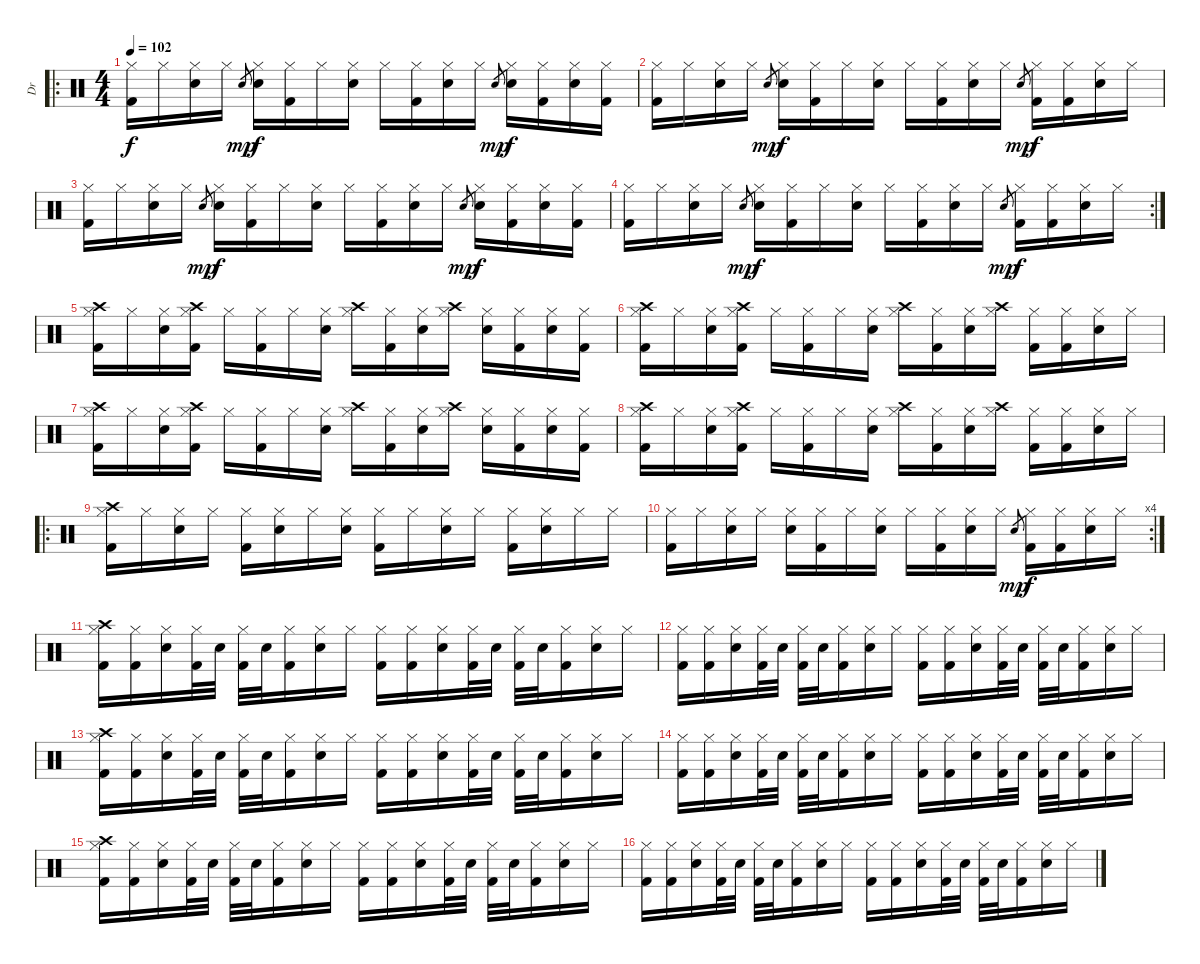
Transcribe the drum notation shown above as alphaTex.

\track ("Dr" "Dr") {instrument percussion}
\staff {score}
\articulation defaults
\ro
\ts (4 4)
\tempo 102
\clef neutral
\ks c
("Hi-Hat (closed)" "Kick (hit) 2").16{dy f} "Hi-Hat (closed)".16 ("Hi-Hat (closed)" "Electric Snare (hit)").16 "Hi-Hat (closed)".16 "Electric Snare (hit)".8{gr dy mp} ("Hi-Hat (closed)" "Electric Snare (hit)").16{dy f} ("Hi-Hat (closed)" "Kick (hit) 2").16 "Hi-Hat (closed)".16 ("Hi-Hat (closed)" "Electric Snare (hit)").16 "Hi-Hat (closed)".16 ("Hi-Hat (closed)" "Kick (hit) 2").16 ("Hi-Hat (closed)" "Electric Snare (hit)").16 "Hi-Hat (closed)".16 "Electric Snare (hit)".8{gr dy mp} ("Hi-Hat (closed)" "Electric Snare (hit)").16{dy f} ("Hi-Hat (closed)" "Kick (hit) 2").16 ("Hi-Hat (closed)" "Electric Snare (hit)").16 ("Hi-Hat (closed)" "Kick (hit) 2").16 |
("Hi-Hat (closed)" "Kick (hit) 2").16 "Hi-Hat (closed)".16 ("Hi-Hat (closed)" "Electric Snare (hit)").16 "Hi-Hat (closed)".16 "Electric Snare (hit)".8{gr dy mp} ("Hi-Hat (closed)" "Electric Snare (hit)").16{dy f} ("Hi-Hat (closed)" "Kick (hit) 2").16 "Hi-Hat (closed)".16 ("Hi-Hat (closed)" "Electric Snare (hit)").16 "Hi-Hat (closed)".16 ("Hi-Hat (closed)" "Kick (hit) 2").16 ("Hi-Hat (closed)" "Electric Snare (hit)").16 "Hi-Hat (closed)".16 "Electric Snare (hit)".8{gr dy mp} ("Hi-Hat (closed)" "Kick (hit) 2").16{dy f} ("Hi-Hat (closed)" "Kick (hit) 2").16 ("Hi-Hat (closed)" "Electric Snare (hit)").16 "Hi-Hat (closed)".16 |
("Hi-Hat (closed)" "Kick (hit) 2").16 "Hi-Hat (closed)".16 ("Hi-Hat (closed)" "Electric Snare (hit)").16 "Hi-Hat (closed)".16 "Electric Snare (hit)".8{gr dy mp} ("Hi-Hat (closed)" "Electric Snare (hit)").16{dy f} ("Hi-Hat (closed)" "Kick (hit) 2").16 "Hi-Hat (closed)".16 ("Hi-Hat (closed)" "Electric Snare (hit)").16 "Hi-Hat (closed)".16 ("Hi-Hat (closed)" "Kick (hit) 2").16 ("Hi-Hat (closed)" "Electric Snare (hit)").16 "Hi-Hat (closed)".16 "Electric Snare (hit)".8{gr dy mp} ("Hi-Hat (closed)" "Electric Snare (hit)").16{dy f} ("Hi-Hat (closed)" "Kick (hit) 2").16 ("Hi-Hat (closed)" "Electric Snare (hit)").16 ("Hi-Hat (closed)" "Kick (hit) 2").16 |
\rc 2
("Hi-Hat (closed)" "Kick (hit) 2").16 "Hi-Hat (closed)".16 ("Hi-Hat (closed)" "Electric Snare (hit)").16 "Hi-Hat (closed)".16 "Electric Snare (hit)".8{gr dy mp} ("Hi-Hat (closed)" "Electric Snare (hit)").16{dy f} ("Hi-Hat (closed)" "Kick (hit) 2").16 "Hi-Hat (closed)".16 ("Hi-Hat (closed)" "Electric Snare (hit)").16 "Hi-Hat (closed)".16 ("Hi-Hat (closed)" "Kick (hit) 2").16 ("Hi-Hat (closed)" "Electric Snare (hit)").16 "Hi-Hat (closed)".16 "Electric Snare (hit)".8{gr dy mp} ("Hi-Hat (closed)" "Kick (hit) 2").16{dy f} ("Hi-Hat (closed)" "Kick (hit) 2").16 ("Hi-Hat (closed)" "Electric Snare (hit)").16 "Hi-Hat (closed)".16 |
("Crash high (hit)" "Hi-Hat (closed)" "Kick (hit) 2").16 "Hi-Hat (closed)".16 ("Hi-Hat (closed)" "Electric Snare (hit)").16 ("Crash high (hit)" "Hi-Hat (closed)" "Kick (hit) 2").16 "Hi-Hat (closed)".16 ("Hi-Hat (closed)" "Kick (hit) 2").16 "Hi-Hat (closed)".16 ("Hi-Hat (closed)" "Electric Snare (hit)").16 ("Crash high (hit)" "Hi-Hat (closed)").16 ("Hi-Hat (closed)" "Kick (hit) 2").16 ("Hi-Hat (closed)" "Electric Snare (hit)").16 ("Crash high (hit)" "Hi-Hat (closed)").16 ("Hi-Hat (closed)" "Electric Snare (hit)").16 ("Hi-Hat (closed)" "Kick (hit) 2").16 ("Hi-Hat (closed)" "Electric Snare (hit)").16 ("Hi-Hat (closed)" "Kick (hit) 2").16 |
("Crash high (hit)" "Hi-Hat (closed)" "Kick (hit) 2").16 "Hi-Hat (closed)".16 ("Hi-Hat (closed)" "Electric Snare (hit)").16 ("Crash high (hit)" "Hi-Hat (closed)" "Kick (hit) 2").16 "Hi-Hat (closed)".16 ("Hi-Hat (closed)" "Kick (hit) 2").16 "Hi-Hat (closed)".16 ("Hi-Hat (closed)" "Electric Snare (hit)").16 ("Crash high (hit)" "Hi-Hat (closed)").16 ("Hi-Hat (closed)" "Kick (hit) 2").16 ("Hi-Hat (closed)" "Electric Snare (hit)").16 ("Crash high (hit)" "Hi-Hat (closed)").16 ("Hi-Hat (closed)" "Kick (hit) 2").16 ("Hi-Hat (closed)" "Kick (hit) 2").16 ("Hi-Hat (closed)" "Electric Snare (hit)").16 "Hi-Hat (closed)".16 |
("Crash high (hit)" "Hi-Hat (closed)" "Kick (hit) 2").16 "Hi-Hat (closed)".16 ("Hi-Hat (closed)" "Electric Snare (hit)").16 ("Crash high (hit)" "Hi-Hat (closed)" "Kick (hit) 2").16 "Hi-Hat (closed)".16 ("Hi-Hat (closed)" "Kick (hit) 2").16 "Hi-Hat (closed)".16 ("Hi-Hat (closed)" "Electric Snare (hit)").16 ("Crash high (hit)" "Hi-Hat (closed)").16 ("Hi-Hat (closed)" "Kick (hit) 2").16 ("Hi-Hat (closed)" "Electric Snare (hit)").16 ("Crash high (hit)" "Hi-Hat (closed)").16 ("Hi-Hat (closed)" "Electric Snare (hit)").16 ("Hi-Hat (closed)" "Kick (hit) 2").16 ("Hi-Hat (closed)" "Electric Snare (hit)").16 ("Hi-Hat (closed)" "Kick (hit) 2").16 |
("Crash high (hit)" "Hi-Hat (closed)" "Kick (hit) 2").16 "Hi-Hat (closed)".16 ("Hi-Hat (closed)" "Electric Snare (hit)").16 ("Crash high (hit)" "Hi-Hat (closed)" "Kick (hit) 2").16 "Hi-Hat (closed)".16 ("Hi-Hat (closed)" "Kick (hit) 2").16 "Hi-Hat (closed)".16 ("Hi-Hat (closed)" "Electric Snare (hit)").16 ("Crash high (hit)" "Hi-Hat (closed)").16 ("Hi-Hat (closed)" "Kick (hit) 2").16 ("Hi-Hat (closed)" "Electric Snare (hit)").16 ("Crash high (hit)" "Hi-Hat (closed)").16 ("Hi-Hat (closed)" "Kick (hit) 2").16 ("Hi-Hat (closed)" "Kick (hit) 2").16 ("Hi-Hat (closed)" "Electric Snare (hit)").16 "Hi-Hat (closed)".16 |
\ro
("Crash high (hit)" "Hi-Hat (closed)" "Kick (hit) 2").16 "Hi-Hat (closed)".16 ("Hi-Hat (closed)" "Electric Snare (hit)").16 "Hi-Hat (closed)".16 ("Hi-Hat (closed)" "Kick (hit) 2").16 ("Hi-Hat (closed)" "Electric Snare (hit)").16 "Hi-Hat (closed)".16 ("Hi-Hat (closed)" "Electric Snare (hit)").16 ("Hi-Hat (closed)" "Kick (hit) 2").16 "Hi-Hat (closed)".16 ("Hi-Hat (closed)" "Electric Snare (hit)").16 "Hi-Hat (closed)".16 ("Hi-Hat (closed)" "Kick (hit) 2").16 ("Hi-Hat (closed)" "Electric Snare (hit)").16 "Hi-Hat (closed)".16 "Hi-Hat (closed)".16 |
\rc 4
("Hi-Hat (closed)" "Kick (hit) 2").16 "Hi-Hat (closed)".16 ("Hi-Hat (closed)" "Electric Snare (hit)").16 "Hi-Hat (closed)".16 ("Hi-Hat (closed)" "Electric Snare (hit)").16 ("Hi-Hat (closed)" "Kick (hit) 2").16 "Hi-Hat (closed)".16 ("Hi-Hat (closed)" "Electric Snare (hit)").16 "Hi-Hat (closed)".16 ("Hi-Hat (closed)" "Kick (hit) 2").16 ("Hi-Hat (closed)" "Electric Snare (hit)").16 "Hi-Hat (closed)".16 "Electric Snare (hit)".8{gr dy mp} ("Hi-Hat (closed)" "Kick (hit) 2").16{dy f} ("Hi-Hat (closed)" "Kick (hit) 2").16 ("Hi-Hat (closed)" "Electric Snare (hit)").16 "Hi-Hat (closed)".16 |
("Crash high (hit)" "Hi-Hat (closed)" "Kick (hit) 2").16 ("Hi-Hat (closed)" "Kick (hit) 2").16 ("Hi-Hat (closed)" "Electric Snare (hit)").16 ("Hi-Hat (closed)" "Kick (hit) 2").32 "Electric Snare (hit)".32 ("Hi-Hat (closed)" "Kick (hit) 2").32 "Electric Snare (hit)".32 ("Hi-Hat (closed)" "Kick (hit) 2").16 ("Hi-Hat (closed)" "Electric Snare (hit)").16 "Hi-Hat (closed)".16 ("Hi-Hat (closed)" "Kick (hit) 2").16 ("Hi-Hat (closed)" "Kick (hit) 2").16 ("Hi-Hat (closed)" "Electric Snare (hit)").16 ("Hi-Hat (closed)" "Kick (hit) 2").32 "Electric Snare (hit)".32 ("Hi-Hat (closed)" "Kick (hit) 2").32 "Electric Snare (hit)".32 ("Hi-Hat (closed)" "Kick (hit) 2").16 ("Hi-Hat (closed)" "Electric Snare (hit)").16 "Hi-Hat (closed)".16 |
("Hi-Hat (closed)" "Kick (hit) 2").16 ("Hi-Hat (closed)" "Kick (hit) 2").16 ("Hi-Hat (closed)" "Electric Snare (hit)").16 ("Hi-Hat (closed)" "Kick (hit) 2").32 "Electric Snare (hit)".32 ("Hi-Hat (closed)" "Kick (hit) 2").32 "Electric Snare (hit)".32 ("Hi-Hat (closed)" "Kick (hit) 2").16 ("Hi-Hat (closed)" "Electric Snare (hit)").16 "Hi-Hat (closed)".16 ("Hi-Hat (closed)" "Kick (hit) 2").16 ("Hi-Hat (closed)" "Kick (hit) 2").16 ("Hi-Hat (closed)" "Electric Snare (hit)").16 ("Hi-Hat (closed)" "Kick (hit) 2").32 "Electric Snare (hit)".32 ("Hi-Hat (closed)" "Kick (hit) 2").32 "Electric Snare (hit)".32 ("Hi-Hat (closed)" "Kick (hit) 2").16 ("Hi-Hat (closed)" "Electric Snare (hit)").16 "Hi-Hat (closed)".16 |
("Crash high (hit)" "Hi-Hat (closed)" "Kick (hit) 2").16 ("Hi-Hat (closed)" "Kick (hit) 2").16 ("Hi-Hat (closed)" "Electric Snare (hit)").16 ("Hi-Hat (closed)" "Kick (hit) 2").32 "Electric Snare (hit)".32 ("Hi-Hat (closed)" "Kick (hit) 2").32 "Electric Snare (hit)".32 ("Hi-Hat (closed)" "Kick (hit) 2").16 ("Hi-Hat (closed)" "Electric Snare (hit)").16 "Hi-Hat (closed)".16 ("Hi-Hat (closed)" "Kick (hit) 2").16 ("Hi-Hat (closed)" "Kick (hit) 2").16 ("Hi-Hat (closed)" "Electric Snare (hit)").16 ("Hi-Hat (closed)" "Kick (hit) 2").32 "Electric Snare (hit)".32 ("Hi-Hat (closed)" "Kick (hit) 2").32 "Electric Snare (hit)".32 ("Hi-Hat (closed)" "Kick (hit) 2").16 ("Hi-Hat (closed)" "Electric Snare (hit)").16 "Hi-Hat (closed)".16 |
("Hi-Hat (closed)" "Kick (hit) 2").16 ("Hi-Hat (closed)" "Kick (hit) 2").16 ("Hi-Hat (closed)" "Electric Snare (hit)").16 ("Hi-Hat (closed)" "Kick (hit) 2").32 "Electric Snare (hit)".32 ("Hi-Hat (closed)" "Kick (hit) 2").32 "Electric Snare (hit)".32 ("Hi-Hat (closed)" "Kick (hit) 2").16 ("Hi-Hat (closed)" "Electric Snare (hit)").16 "Hi-Hat (closed)".16 ("Hi-Hat (closed)" "Kick (hit) 2").16 ("Hi-Hat (closed)" "Kick (hit) 2").16 ("Hi-Hat (closed)" "Electric Snare (hit)").16 ("Hi-Hat (closed)" "Kick (hit) 2").32 "Electric Snare (hit)".32 ("Hi-Hat (closed)" "Kick (hit) 2").32 "Electric Snare (hit)".32 ("Hi-Hat (closed)" "Kick (hit) 2").16 ("Hi-Hat (closed)" "Electric Snare (hit)").16 "Hi-Hat (closed)".16 |
("Crash high (hit)" "Hi-Hat (closed)" "Kick (hit) 2").16 ("Hi-Hat (closed)" "Kick (hit) 2").16 ("Hi-Hat (closed)" "Electric Snare (hit)").16 ("Hi-Hat (closed)" "Kick (hit) 2").32 "Electric Snare (hit)".32 ("Hi-Hat (closed)" "Kick (hit) 2").32 "Electric Snare (hit)".32 ("Hi-Hat (closed)" "Kick (hit) 2").16 ("Hi-Hat (closed)" "Electric Snare (hit)").16 "Hi-Hat (closed)".16 ("Hi-Hat (closed)" "Kick (hit) 2").16 ("Hi-Hat (closed)" "Kick (hit) 2").16 ("Hi-Hat (closed)" "Electric Snare (hit)").16 ("Hi-Hat (closed)" "Kick (hit) 2").32 "Electric Snare (hit)".32 ("Hi-Hat (closed)" "Kick (hit) 2").32 "Electric Snare (hit)".32 ("Hi-Hat (closed)" "Kick (hit) 2").16 ("Hi-Hat (closed)" "Electric Snare (hit)").16 "Hi-Hat (closed)".16 |
("Hi-Hat (closed)" "Kick (hit) 2").16 ("Hi-Hat (closed)" "Kick (hit) 2").16 ("Hi-Hat (closed)" "Electric Snare (hit)").16 ("Hi-Hat (closed)" "Kick (hit) 2").32 "Electric Snare (hit)".32 ("Hi-Hat (closed)" "Kick (hit) 2").32 "Electric Snare (hit)".32 ("Hi-Hat (closed)" "Kick (hit) 2").16 ("Hi-Hat (closed)" "Electric Snare (hit)").16 "Hi-Hat (closed)".16 ("Hi-Hat (closed)" "Kick (hit) 2").16 ("Hi-Hat (closed)" "Kick (hit) 2").16 ("Hi-Hat (closed)" "Electric Snare (hit)").16 ("Hi-Hat (closed)" "Kick (hit) 2").32 "Electric Snare (hit)".32 ("Hi-Hat (closed)" "Kick (hit) 2").32 "Electric Snare (hit)".32 ("Hi-Hat (closed)" "Kick (hit) 2").16 ("Hi-Hat (closed)" "Electric Snare (hit)").16 "Hi-Hat (closed)".16
